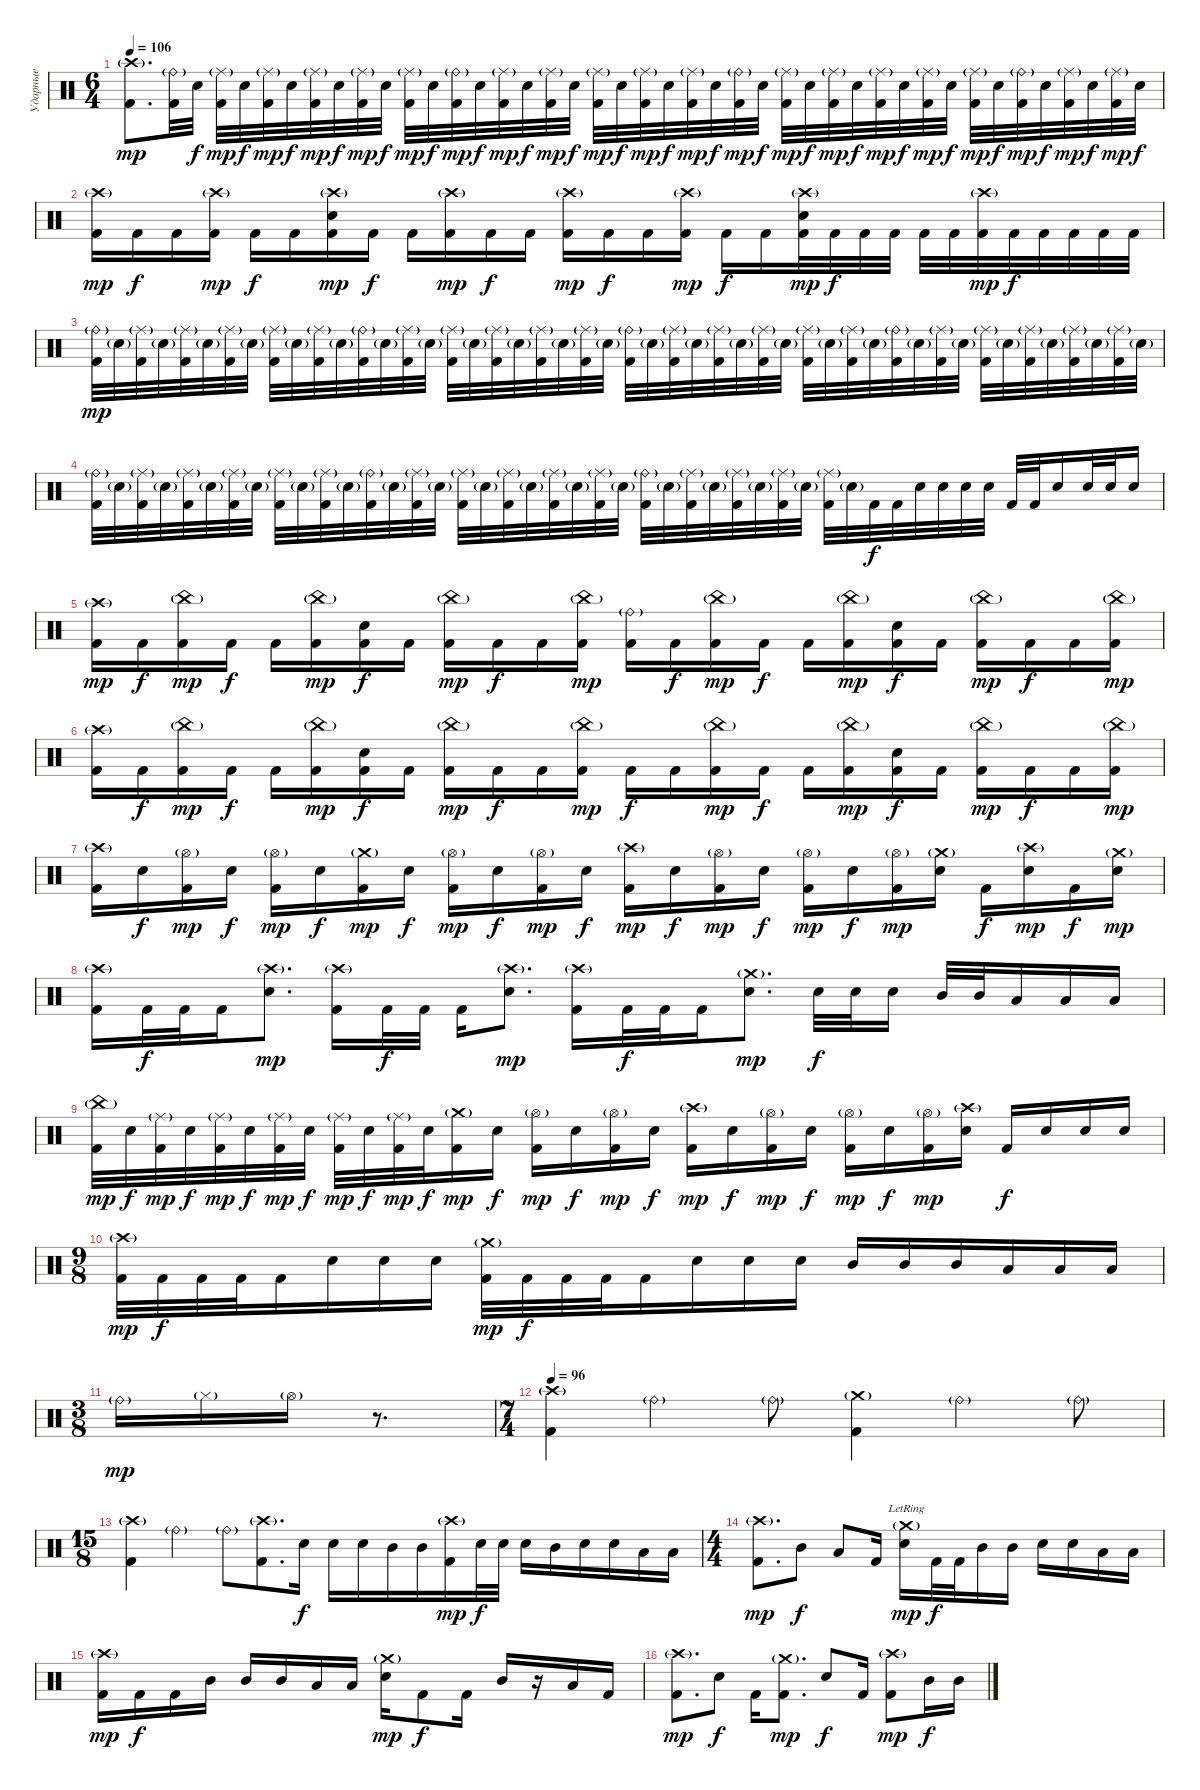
\track ("Ударные" "Ударные") {instrument percussion}
\staff {score}
\articulation defaults
\ts (6 4)
\tempo 106
\clef neutral
\ks c
("Crash high (hit)"{g} "Kick (hit) 2").8{d dy mp} ("Ride (bell)"{g} "Kick (hit) 2").32 "Electric Snare (hit)".32{dy f} ("Ride (middle)"{g} "Kick (hit) 2").32{dy mp} "Electric Snare (hit)".32{dy f} ("Ride (middle)"{g} "Kick (hit) 2").32{dy mp} "Electric Snare (hit)".32{dy f} ("Ride (middle)"{g} "Kick (hit) 2").32{dy mp} "Electric Snare (hit)".32{dy f} ("Ride (middle)"{g} "Kick (hit) 2").32{dy mp} "Electric Snare (hit)".32{dy f} ("Ride (middle)"{g} "Kick (hit) 2").32{dy mp} "Electric Snare (hit)".32{dy f} ("Ride (bell)"{g} "Kick (hit) 2").32{dy mp} "Electric Snare (hit)".32{dy f} ("Ride (middle)"{g} "Kick (hit) 2").32{dy mp} "Electric Snare (hit)".32{dy f} ("Ride (middle)"{g} "Kick (hit) 2").32{dy mp} "Electric Snare (hit)".32{dy f} ("Ride (middle)"{g} "Kick (hit) 2").32{dy mp} "Electric Snare (hit)".32{dy f} ("Ride (middle)"{g} "Kick (hit) 2").32{dy mp} "Electric Snare (hit)".32{dy f} ("Ride (middle)"{g} "Kick (hit) 2").32{dy mp} "Electric Snare (hit)".32{dy f} ("Ride (bell)"{g} "Kick (hit) 2").32{dy mp} "Electric Snare (hit)".32{dy f} ("Ride (middle)"{g} "Kick (hit) 2").32{dy mp} "Electric Snare (hit)".32{dy f} ("Ride (middle)"{g} "Kick (hit) 2").32{dy mp} "Electric Snare (hit)".32{dy f} ("Ride (middle)"{g} "Kick (hit) 2").32{dy mp} "Electric Snare (hit)".32{dy f} ("Ride (middle)"{g} "Kick (hit) 2").32{dy mp} "Electric Snare (hit)".32{dy f} ("Ride (middle)"{g} "Kick (hit) 2").32{dy mp} "Electric Snare (hit)".32{dy f} ("Ride (bell)"{g} "Kick (hit) 2").32{dy mp} "Electric Snare (hit)".32{dy f} ("Ride (middle)"{g} "Kick (hit) 2").32{dy mp} "Electric Snare (hit)".32{dy f} ("Ride (middle)"{g} "Kick (hit) 2").32{dy mp} "Electric Snare (hit)".32{dy f} |
("Crash high (hit)"{g} "Kick (hit) 2").16{dy mp} "Kick (hit) 2".16{dy f} "Kick (hit) 2".16 ("Crash high (hit)"{g} "Kick (hit) 2").16{dy mp} "Kick (hit) 2".16{dy f} "Kick (hit) 2".16 ("Crash high (hit)"{g} "Electric Snare (hit)" "Kick (hit) 2").16{dy mp} "Kick (hit) 2".16{dy f} "Kick (hit) 2".16 ("Crash high (hit)"{g} "Kick (hit) 2").16{dy mp} "Kick (hit) 2".16{dy f} "Kick (hit) 2".16 ("Crash high (hit)"{g} "Kick (hit) 2").16{dy mp} "Kick (hit) 2".16{dy f} "Kick (hit) 2".16 ("Crash high (hit)"{g} "Kick (hit) 2").16{dy mp} "Kick (hit) 2".16{dy f} "Kick (hit) 2".16 ("Crash high (hit)"{g} "Electric Snare (hit)" "Kick (hit) 2").32{dy mp} "Kick (hit) 2".32{dy f} "Kick (hit) 2".32 "Kick (hit) 2".32 "Kick (hit) 2".32 "Kick (hit) 2".32 ("Crash high (hit)"{g} "Kick (hit) 2").32{dy mp} "Kick (hit) 2".32{dy f} "Kick (hit) 2".32 "Kick (hit) 2".32 "Kick (hit) 2".32 "Kick (hit) 2".32 |
("Ride (bell)"{g} "Kick (hit) 2").32{dy mp} "Electric Snare (hit)"{g}.32 ("Ride (middle)"{g} "Kick (hit) 2").32 "Electric Snare (hit)"{g}.32 ("Ride (middle)"{g} "Kick (hit) 2").32 "Electric Snare (hit)"{g}.32 ("Ride (middle)"{g} "Kick (hit) 2").32 "Electric Snare (hit)"{g}.32 ("Ride (middle)"{g} "Kick (hit) 2").32 "Electric Snare (hit)"{g}.32 ("Ride (middle)"{g} "Kick (hit) 2").32 "Electric Snare (hit)"{g}.32 ("Ride (bell)"{g} "Kick (hit) 2").32 "Electric Snare (hit)"{g}.32 ("Ride (middle)"{g} "Kick (hit) 2").32 "Electric Snare (hit)"{g}.32 ("Ride (middle)"{g} "Kick (hit) 2").32 "Electric Snare (hit)"{g}.32 ("Ride (middle)"{g} "Kick (hit) 2").32 "Electric Snare (hit)"{g}.32 ("Ride (middle)"{g} "Kick (hit) 2").32 "Electric Snare (hit)"{g}.32 ("Ride (middle)"{g} "Kick (hit) 2").32 "Electric Snare (hit)"{g}.32 ("Ride (bell)"{g} "Kick (hit) 2").32 "Electric Snare (hit)"{g}.32 ("Ride (middle)"{g} "Kick (hit) 2").32 "Electric Snare (hit)"{g}.32 ("Ride (middle)"{g} "Kick (hit) 2").32 "Electric Snare (hit)"{g}.32 ("Ride (middle)"{g} "Kick (hit) 2").32 "Electric Snare (hit)"{g}.32 ("Ride (middle)"{g} "Kick (hit) 2").32 "Electric Snare (hit)"{g}.32 ("Ride (middle)"{g} "Kick (hit) 2").32 "Electric Snare (hit)"{g}.32 ("Ride (bell)"{g} "Kick (hit) 2").32 "Electric Snare (hit)"{g}.32 ("Ride (middle)"{g} "Kick (hit) 2").32 "Electric Snare (hit)"{g}.32 ("Ride (middle)"{g} "Kick (hit) 2").32 "Electric Snare (hit)"{g}.32 ("Ride (middle)"{g} "Kick (hit) 2").32 "Electric Snare (hit)"{g}.32 ("Ride (middle)"{g} "Kick (hit) 2").32 "Electric Snare (hit)"{g}.32 ("Ride (middle)"{g} "Kick (hit) 2").32 "Electric Snare (hit)"{g}.32 |
("Ride (bell)"{g} "Kick (hit) 2").32 "Electric Snare (hit)"{g}.32 ("Ride (middle)"{g} "Kick (hit) 2").32 "Electric Snare (hit)"{g}.32 ("Ride (middle)"{g} "Kick (hit) 2").32 "Electric Snare (hit)"{g}.32 ("Ride (middle)"{g} "Kick (hit) 2").32 "Electric Snare (hit)"{g}.32 ("Ride (middle)"{g} "Kick (hit) 2").32 "Electric Snare (hit)"{g}.32 ("Ride (middle)"{g} "Kick (hit) 2").32 "Electric Snare (hit)"{g}.32 ("Ride (bell)"{g} "Kick (hit) 2").32 "Electric Snare (hit)"{g}.32 ("Ride (middle)"{g} "Kick (hit) 2").32 "Electric Snare (hit)"{g}.32 ("Ride (middle)"{g} "Kick (hit) 2").32 "Electric Snare (hit)"{g}.32 ("Ride (middle)"{g} "Kick (hit) 2").32 "Electric Snare (hit)"{g}.32 ("Ride (middle)"{g} "Kick (hit) 2").32 "Electric Snare (hit)"{g}.32 ("Ride (middle)"{g} "Kick (hit) 2").32 "Electric Snare (hit)"{g}.32 ("Ride (bell)"{g} "Kick (hit) 2").32 "Electric Snare (hit)"{g}.32 ("Ride (middle)"{g} "Kick (hit) 2").32 "Electric Snare (hit)"{g}.32 ("Ride (middle)"{g} "Kick (hit) 2").32 "Electric Snare (hit)"{g}.32 ("Ride (middle)"{g} "Kick (hit) 2").32 "Electric Snare (hit)"{g}.32 ("Ride (middle)"{g} "Kick (hit) 2").32 "Electric Snare (hit)"{g}.32 "Kick (hit) 2".32{dy f} "Kick (hit) 2".32 "Electric Snare (hit)".32 "Electric Snare (hit)".32 "Electric Snare (hit)".32 "Electric Snare (hit)".32 "Kick (hit) 2".32 "Kick (hit) 2".32 "Electric Snare (hit)".16 "Electric Snare (hit)".32 "Electric Snare (hit)".32 "Electric Snare (hit)".16 |
("Crash high (hit)"{g} "Kick (hit) 2").16{dy mp} "Kick (hit) 2".16{dy f} ("China (hit)"{g} "Kick (hit) 2").16{dy mp} "Kick (hit) 2".16{dy f} "Kick (hit) 2".16 ("China (hit)"{g} "Kick (hit) 2").16{dy mp} ("Electric Snare (hit)" "Kick (hit) 2").16{dy f} "Kick (hit) 2".16 ("China (hit)"{g} "Kick (hit) 2").16{dy mp} "Kick (hit) 2".16{dy f} "Kick (hit) 2".16 ("China (hit)"{g} "Kick (hit) 2").16{dy mp} ("Ride (bell)"{g} "Kick (hit) 2").16 "Kick (hit) 2".16{dy f} ("China (hit)"{g} "Kick (hit) 2").16{dy mp} "Kick (hit) 2".16{dy f} "Kick (hit) 2".16 ("China (hit)"{g} "Kick (hit) 2").16{dy mp} ("Electric Snare (hit)" "Kick (hit) 2").16{dy f} "Kick (hit) 2".16 ("China (hit)"{g} "Kick (hit) 2").16{dy mp} "Kick (hit) 2".16{dy f} "Kick (hit) 2".16 ("China (hit)"{g} "Kick (hit) 2").16{dy mp} |
("Crash high (hit)"{g} "Kick (hit) 2").16 "Kick (hit) 2".16{dy f} ("China (hit)"{g} "Kick (hit) 2").16{dy mp} "Kick (hit) 2".16{dy f} "Kick (hit) 2".16 ("China (hit)"{g} "Kick (hit) 2").16{dy mp} ("Electric Snare (hit)" "Kick (hit) 2").16{dy f} "Kick (hit) 2".16 ("China (hit)"{g} "Kick (hit) 2").16{dy mp} "Kick (hit) 2".16{dy f} "Kick (hit) 2".16 ("China (hit)"{g} "Kick (hit) 2").16{dy mp} "Kick (hit) 2".16{dy f} "Kick (hit) 2".16 ("China (hit)"{g} "Kick (hit) 2").16{dy mp} "Kick (hit) 2".16{dy f} "Kick (hit) 2".16 ("China (hit)"{g} "Kick (hit) 2").16{dy mp} ("Electric Snare (hit)" "Kick (hit) 2").16{dy f} "Kick (hit) 2".16 ("China (hit)"{g} "Kick (hit) 2").16{dy mp} "Kick (hit) 2".16{dy f} "Kick (hit) 2".16 ("China (hit)"{g} "Kick (hit) 2").16{dy mp} |
("Crash high (hit)"{g} "Kick (hit) 2").16 "Electric Snare (hit)".16{dy f} ("Hi-Hat (open)"{g} "Kick (hit) 2").16{dy mp} "Electric Snare (hit)".16{dy f} ("Hi-Hat (open)"{g} "Kick (hit) 2").16{dy mp} "Electric Snare (hit)".16{dy f} ("Crash medium (hit)"{g} "Kick (hit) 2").16{dy mp} "Electric Snare (hit)".16{dy f} ("Hi-Hat (open)"{g} "Kick (hit) 2").16{dy mp} "Electric Snare (hit)".16{dy f} ("Hi-Hat (open)"{g} "Kick (hit) 2").16{dy mp} "Electric Snare (hit)".16{dy f} ("Crash high (hit)"{g} "Kick (hit) 2").16{dy mp} "Electric Snare (hit)".16{dy f} ("Hi-Hat (open)"{g} "Kick (hit) 2").16{dy mp} "Electric Snare (hit)".16{dy f} ("Hi-Hat (open)"{g} "Kick (hit) 2").16{dy mp} "Electric Snare (hit)".16{dy f} ("Hi-Hat (open)"{g} "Kick (hit) 2").16{dy mp} ("Crash medium (hit)"{g} "Electric Snare (hit)").16 "Kick (hit) 2".16{dy f} ("Crash high (hit)"{g} "Electric Snare (hit)").16{dy mp} "Kick (hit) 2".16{dy f} ("Crash medium (hit)"{g} "Electric Snare (hit)").16{dy mp} |
("Crash high (hit)"{g} "Kick (hit) 2").16 "Kick (hit) 2".32{dy f} "Kick (hit) 2".32 "Kick (hit) 2".16 ("Crash high (hit)"{g} "Electric Snare (hit)").8{d dy mp} ("Crash high (hit)"{g} "Kick (hit) 2").16 "Kick (hit) 2".32{dy f} "Kick (hit) 2".32 "Kick (hit) 2".16 ("Crash high (hit)"{g} "Electric Snare (hit)").8{d dy mp} ("Crash high (hit)"{g} "Kick (hit) 2").16 "Kick (hit) 2".32{dy f} "Kick (hit) 2".32 "Kick (hit) 2".16 ("Crash medium (hit)"{g} "Electric Snare (hit)").8{d dy mp} "Electric Snare (hit)".32{dy f} "Electric Snare (hit)".32 "Electric Snare (hit)".16 "Mid Tom (hit)".32 "Mid Tom (hit)".32 "Low Tom (hit)".16 "Low Tom (hit)".16 "Low Tom (hit)".16 |
("China (hit)"{g} "Kick (hit) 2").32{dy mp} "Electric Snare (hit)".32{dy f} ("Ride (middle)"{g} "Kick (hit) 2").32{dy mp} "Electric Snare (hit)".32{dy f} ("Ride (middle)"{g} "Kick (hit) 2").32{dy mp} "Electric Snare (hit)".32{dy f} ("Ride (middle)"{g} "Kick (hit) 2").32{dy mp} "Electric Snare (hit)".32{dy f} ("Ride (middle)"{g} "Kick (hit) 2").32{dy mp} "Electric Snare (hit)".32{dy f} ("Ride (middle)"{g} "Kick (hit) 2").32{dy mp} "Electric Snare (hit)".32{dy f} ("Crash medium (hit)"{g} "Kick (hit) 2").16{dy mp} "Electric Snare (hit)".16{dy f} ("Hi-Hat (open)"{g} "Kick (hit) 2").16{dy mp} "Electric Snare (hit)".16{dy f} ("Hi-Hat (open)"{g} "Kick (hit) 2").16{dy mp} "Electric Snare (hit)".16{dy f} ("Crash high (hit)"{g} "Kick (hit) 2").16{dy mp} "Electric Snare (hit)".16{dy f} ("Hi-Hat (open)"{g} "Kick (hit) 2").16{dy mp} "Electric Snare (hit)".16{dy f} ("Hi-Hat (open)"{g} "Kick (hit) 2").16{dy mp} "Electric Snare (hit)".16{dy f} ("Hi-Hat (open)"{g} "Kick (hit) 2").16{dy mp} ("Crash high (hit)"{g} "Electric Snare (hit)").16 "Kick (hit) 2".16{dy f} "Electric Snare (hit)".16 "Electric Snare (hit)".16 "Electric Snare (hit)".16 |
\ts (9 8)
("Crash high (hit)"{g} "Kick (hit) 2").32{dy mp} "Kick (hit) 2".32{dy f} "Kick (hit) 2".32 "Kick (hit) 2".32 "Kick (hit) 2".16 "Electric Snare (hit)".16 "Electric Snare (hit)".16 "Electric Snare (hit)".16 ("Crash medium (hit)"{g} "Kick (hit) 2").32{dy mp} "Kick (hit) 2".32{dy f} "Kick (hit) 2".32 "Kick (hit) 2".32 "Kick (hit) 2".16 "Electric Snare (hit)".16 "Electric Snare (hit)".16 "Electric Snare (hit)".16 "Mid Tom (hit)".16 "Mid Tom (hit)".16 "Mid Tom (hit)".16 "Low Tom (hit)".16 "Low Tom (hit)".16 "Low Tom (hit)".16 |
\ts (3 8)
"Ride (bell)"{g}.16{dy mp} "Hi-Hat (closed)"{g}.16 "Hi-Hat (open)"{g}.16 r.8{d} |
\ts (7 4)
\tempo 96
("Crash high (hit)"{g} "Kick (hit) 2").4 "Ride (bell)"{g}.2 "Ride (bell)"{g}.8 ("Crash medium (hit)"{g} "Kick (hit) 2").4 "Ride (bell)"{g}.2 "Ride (bell)"{g}.8 |
\ts (15 8)
("Crash high (hit)"{g} "Kick (hit) 2").4 "Ride (bell)"{g}.2 "Ride (bell)"{g}.8 ("Crash high (hit)"{g} "Kick (hit) 2").8{d} "Electric Snare (hit)".16{dy f} "Electric Snare (hit)".16 "Electric Snare (hit)".16 "Mid Tom (hit)".16 "Mid Tom (hit)".16 ("Crash high (hit)"{g} "Kick (hit) 2").16{dy mp} "Electric Snare (hit)".32{dy f} "Electric Snare (hit)".32 "Electric Snare (hit)".16 "Mid Tom (hit)".16 "Electric Snare (hit)".16 "Electric Snare (hit)".16 "Low Tom (hit)".16 "Low Tom (hit)".16 |
\ts (4 4)
("Crash high (hit)"{g} "Kick (hit) 2").8{d dy mp} "Mid Tom (hit)".8{dy f} "Low Tom (hit)".8 "Kick (hit) 2".16 ("Crash medium (hit)"{g lr} "Electric Snare (hit)").16{dy mp} "Kick (hit) 2".32{dy f} "Kick (hit) 2".32 "Mid Tom (hit)".16 "Mid Tom (hit)".16 "Electric Snare (hit)".16 "Electric Snare (hit)".16 "Low Tom (hit)".16 "Low Tom (hit)".16 |
("Crash high (hit)"{g} "Kick (hit) 2").16{dy mp} "Kick (hit) 2".16{dy f} "Kick (hit) 2".16 "Mid Tom (hit)".16 "Mid Tom (hit)".16 "Mid Tom (hit)".16 "Low Tom (hit)".16 "Low Tom (hit)".16 ("Crash medium (hit)"{g} "Electric Snare (hit)").16{dy mp} "Kick (hit) 2".8{dy f} "Kick (hit) 2".16 "Mid Tom (hit)".16 r.16 "Low Tom (hit)".16 "Kick (hit) 2".16 |
("Crash high (hit)"{g} "Kick (hit) 2").8{d dy mp} "Electric Snare (hit)".8{dy f} "Kick (hit) 2".16 ("Crash medium (hit)"{g} "Kick (hit) 2").8{d dy mp} "Electric Snare (hit)".8{dy f} "Kick (hit) 2".16 ("Crash high (hit)"{g} "Kick (hit) 2").8{dy mp} "Mid Tom (hit)".16{dy f} "Mid Tom (hit)".16
